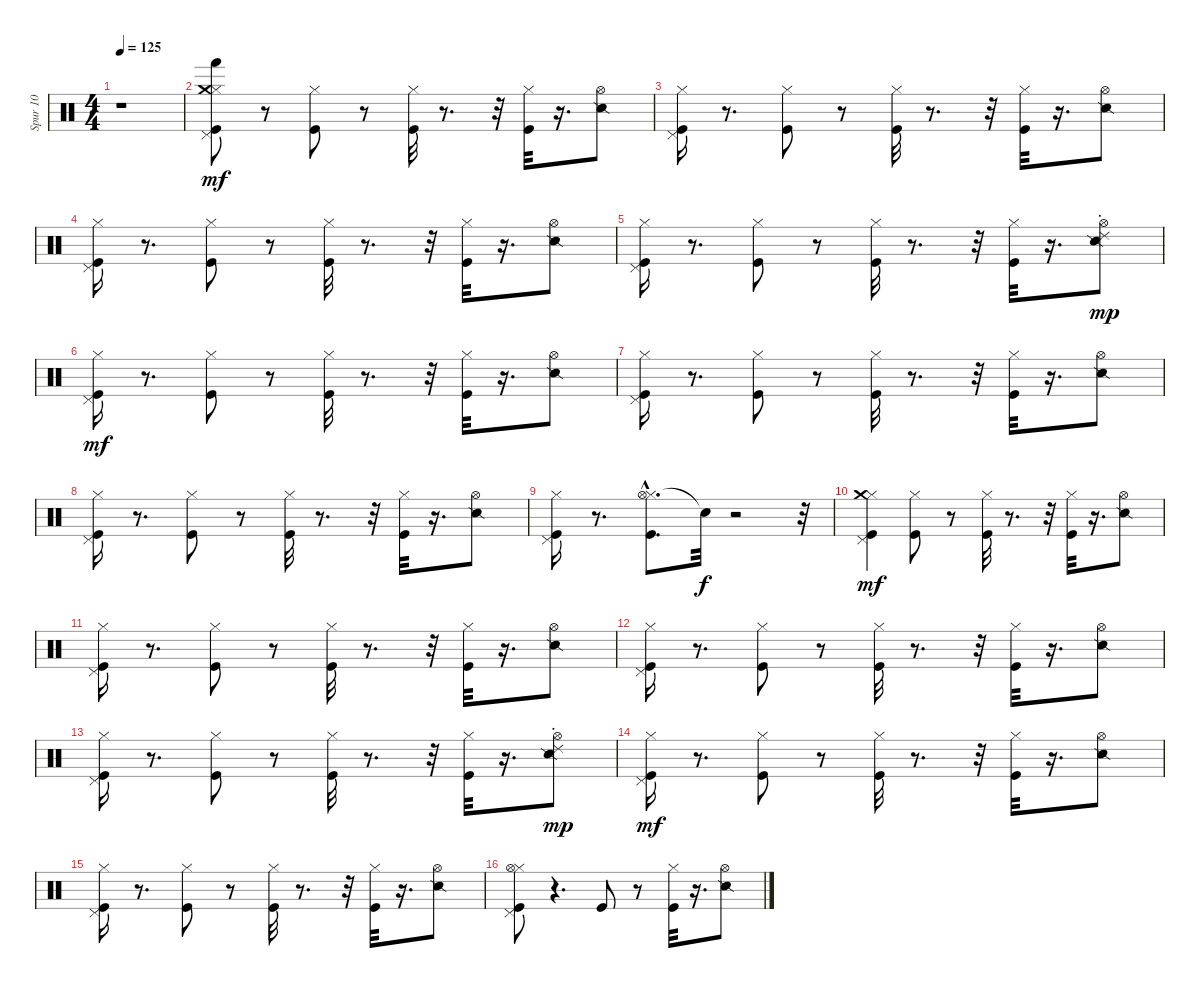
\track ("Spur 10" "Spur 10") {instrument percussion}
\staff {score}
\articulation defaults
\ts (4 4)
\tempo 125
\clef neutral
\ks c
r.1{dy mf} |
("Pedal Hi-Hat (hit)" "Kick (hit)" "Hi-Hat (closed)" "Hand (hit)" "Crash medium (hit)").8 r.8 ("Hi-Hat (closed)" "Kick (hit)").8 r.8 ("Hi-Hat (closed)" "Kick (hit)").32 r.8{d} r.32 ("Hi-Hat (closed)" "Kick (hit)").32 r.16{d} ("Hi-Hat (open)" "Snare (side stick) 2").8 |
("Pedal Hi-Hat (hit)" "Kick (hit)" "Hi-Hat (closed)").16 r.8{d} ("Hi-Hat (closed)" "Kick (hit)").8 r.8 ("Hi-Hat (closed)" "Kick (hit)").32 r.8{d} r.32 ("Hi-Hat (closed)" "Kick (hit)").32 r.16{d} ("Hi-Hat (open)" "Snare (side stick) 2").8 |
("Pedal Hi-Hat (hit)" "Kick (hit)" "Hi-Hat (closed)").16 r.8{d} ("Hi-Hat (closed)" "Kick (hit)").8 r.8 ("Hi-Hat (closed)" "Kick (hit)").32 r.8{d} r.32 ("Hi-Hat (closed)" "Kick (hit)").32 r.16{d} ("Hi-Hat (open)" "Snare (side stick) 2").8 |
("Pedal Hi-Hat (hit)" "Kick (hit)" "Hi-Hat (closed)").16 r.8{d} ("Hi-Hat (closed)" "Kick (hit)").8 r.8 ("Hi-Hat (closed)" "Kick (hit)").32 r.8{d} r.32 ("Hi-Hat (closed)" "Kick (hit)").32 r.16{d} ("Hi-Hat (open)" "Snare (side stick) 2" "Ride (choke) 2").8{dy mp} |
("Pedal Hi-Hat (hit)" "Kick (hit)" "Hi-Hat (closed)").16{dy mf} r.8{d} ("Hi-Hat (closed)" "Kick (hit)").8 r.8 ("Hi-Hat (closed)" "Kick (hit)").32 r.8{d} r.32 ("Hi-Hat (closed)" "Kick (hit)").32 r.16{d} ("Hi-Hat (open)" "Snare (side stick) 2").8 |
("Pedal Hi-Hat (hit)" "Kick (hit)" "Hi-Hat (closed)").16 r.8{d} ("Hi-Hat (closed)" "Kick (hit)").8 r.8 ("Hi-Hat (closed)" "Kick (hit)").32 r.8{d} r.32 ("Hi-Hat (closed)" "Kick (hit)").32 r.16{d} ("Hi-Hat (open)" "Snare (side stick) 2").8 |
("Pedal Hi-Hat (hit)" "Kick (hit)" "Hi-Hat (closed)").16 r.8{d} ("Hi-Hat (closed)" "Kick (hit)").8 r.8 ("Hi-Hat (closed)" "Kick (hit)").32 r.8{d} r.32 ("Hi-Hat (closed)" "Kick (hit)").32 r.16{d} ("Hi-Hat (open)" "Snare (side stick) 2").8 |
("Pedal Hi-Hat (hit)" "Kick (hit)" "Hi-Hat (closed)").16 r.8{d} ("Hi-Hat (closed)" "Kick (hit)" "Hi-Hat (open)"{hac}).8{d} "Snare (hit)"{t}.32{dy f} r.2 r.32 |
("Pedal Hi-Hat (hit)" "Kick (hit)" "Hi-Hat (closed)" "Crash medium (hit)").4{dy mf} ("Hi-Hat (closed)" "Kick (hit)").8 r.8 ("Hi-Hat (closed)" "Kick (hit)").32 r.8{d} r.32 ("Hi-Hat (closed)" "Kick (hit)").32 r.16{d} ("Hi-Hat (open)" "Snare (side stick) 2").8 |
("Pedal Hi-Hat (hit)" "Kick (hit)" "Hi-Hat (closed)").16 r.8{d} ("Hi-Hat (closed)" "Kick (hit)").8 r.8 ("Hi-Hat (closed)" "Kick (hit)").32 r.8{d} r.32 ("Hi-Hat (closed)" "Kick (hit)").32 r.16{d} ("Hi-Hat (open)" "Snare (side stick) 2").8 |
("Pedal Hi-Hat (hit)" "Kick (hit)" "Hi-Hat (closed)").16 r.8{d} ("Hi-Hat (closed)" "Kick (hit)").8 r.8 ("Hi-Hat (closed)" "Kick (hit)").32 r.8{d} r.32 ("Hi-Hat (closed)" "Kick (hit)").32 r.16{d} ("Hi-Hat (open)" "Snare (side stick) 2").8 |
("Pedal Hi-Hat (hit)" "Kick (hit)" "Hi-Hat (closed)").16 r.8{d} ("Hi-Hat (closed)" "Kick (hit)").8 r.8 ("Hi-Hat (closed)" "Kick (hit)").32 r.8{d} r.32 ("Hi-Hat (closed)" "Kick (hit)").32 r.16{d} ("Hi-Hat (open)" "Snare (side stick) 2" "Ride (choke) 2").8{dy mp} |
("Pedal Hi-Hat (hit)" "Kick (hit)" "Hi-Hat (closed)").16{dy mf} r.8{d} ("Hi-Hat (closed)" "Kick (hit)").8 r.8 ("Hi-Hat (closed)" "Kick (hit)").32 r.8{d} r.32 ("Hi-Hat (closed)" "Kick (hit)").32 r.16{d} ("Hi-Hat (open)" "Snare (side stick) 2").8 |
("Pedal Hi-Hat (hit)" "Kick (hit)" "Hi-Hat (closed)").16 r.8{d} ("Hi-Hat (closed)" "Kick (hit)").8 r.8 ("Hi-Hat (closed)" "Kick (hit)").32 r.8{d} r.32 ("Hi-Hat (closed)" "Kick (hit)").32 r.16{d} ("Hi-Hat (open)" "Snare (side stick) 2").8 |
("Pedal Hi-Hat (hit)" "Kick (hit)" "Hi-Hat (closed)" "Hi-Hat (open)").8 r.4{d} "Kick (hit)".8 r.8 ("Hi-Hat (closed)" "Kick (hit)").32 r.16{d} ("Hi-Hat (open)" "Snare (side stick) 2").8
